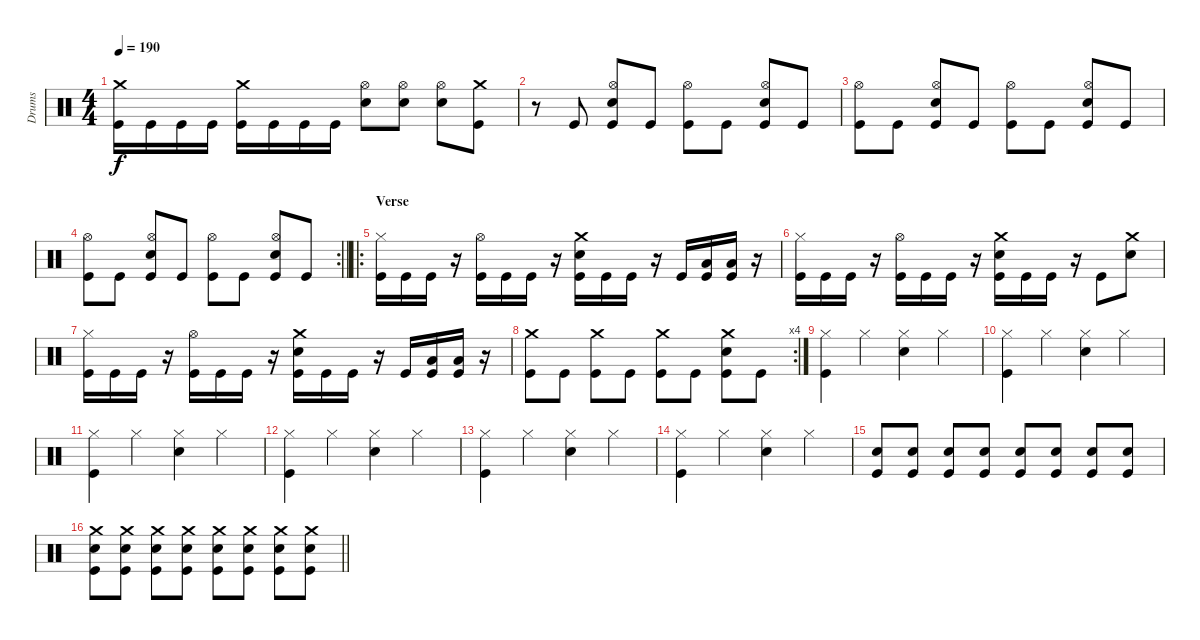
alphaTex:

\track ("Drums" "Drums") {instrument percussion}
\staff {score}
\articulation defaults
\ts (4 4)
\tempo 190
\clef neutral
\ks c
("Crash medium (hit)" "Kick (hit)").16{dy f} "Kick (hit)".16 "Kick (hit)".16 "Kick (hit)".16 ("Crash medium (hit)" "Kick (hit)").16 "Kick (hit)".16 "Kick (hit)".16 "Kick (hit)".16 ("Hi-Hat (open)" "Snare (hit) 2").8 ("Hi-Hat (open)" "Snare (hit) 2").8 ("Hi-Hat (open)" "Snare (hit) 2").8 ("Crash medium (hit)" "Kick (hit)").8 |
r.8 "Kick (hit)".8 ("Hi-Hat (open)" "Snare (hit) 2" "Kick (hit)").8 "Kick (hit)".8 ("Hi-Hat (open)" "Kick (hit)").8 "Kick (hit)".8 ("Hi-Hat (open)" "Snare (hit) 2" "Kick (hit)").8 "Kick (hit)".8 |
("Hi-Hat (open)" "Kick (hit)").8 "Kick (hit)".8 ("Hi-Hat (open)" "Snare (hit) 2" "Kick (hit)").8 "Kick (hit)".8 ("Hi-Hat (open)" "Kick (hit)").8 "Kick (hit)".8 ("Hi-Hat (open)" "Snare (hit) 2" "Kick (hit)").8 "Kick (hit)".8 |
\rc 2
\barLineRight lightlight
("Hi-Hat (open)" "Kick (hit)").8 "Kick (hit)".8 ("Hi-Hat (open)" "Snare (hit) 2" "Kick (hit)").8 "Kick (hit)".8 ("Hi-Hat (open)" "Kick (hit)").8 "Kick (hit)".8 ("Hi-Hat (open)" "Snare (hit) 2" "Kick (hit)").8 "Kick (hit)".8 |
\ro
\section ("" "Verse")
("Hi-Hat (closed)" "Kick (hit)").16 "Kick (hit)".16 "Kick (hit)".16 r.16 ("Hi-Hat (open)" "Kick (hit)").16 "Kick (hit)".16 "Kick (hit)".16 r.16 ("Crash medium (hit)" "Snare (hit) 2" "Kick (hit)").16 "Kick (hit)".16 "Kick (hit)".16 r.16 "Kick (hit)".16 ("Low Floor Tom (hit)" "Kick (hit)").16 ("Low Floor Tom (hit)" "Kick (hit)").16 r.16 |
("Hi-Hat (closed)" "Kick (hit)").16 "Kick (hit)".16 "Kick (hit)".16 r.16 ("Hi-Hat (open)" "Kick (hit)").16 "Kick (hit)".16 "Kick (hit)".16 r.16 ("Crash medium (hit)" "Snare (hit) 2" "Kick (hit)").16 "Kick (hit)".16 "Kick (hit)".16 r.16 "Kick (hit)".8 ("Crash medium (hit)" "Snare (hit) 2").8 |
("Hi-Hat (closed)" "Kick (hit)").16 "Kick (hit)".16 "Kick (hit)".16 r.16 ("Hi-Hat (open)" "Kick (hit)").16 "Kick (hit)".16 "Kick (hit)".16 r.16 ("Crash medium (hit)" "Snare (hit) 2" "Kick (hit)").16 "Kick (hit)".16 "Kick (hit)".16 r.16 "Kick (hit)".16 ("Low Floor Tom (hit)" "Kick (hit)").16 ("Low Floor Tom (hit)" "Kick (hit)").16 r.16 |
\rc 4
("Crash medium (hit)" "Kick (hit)").8 "Kick (hit)".8 ("Crash medium (hit)" "Kick (hit)").8 "Kick (hit)".8 ("Crash medium (hit)" "Kick (hit)").8 "Kick (hit)".8 ("Crash medium (hit)" "Snare (hit) 2" "Kick (hit)").8 "Kick (hit)".8 |
("Hi-Hat (closed)" "Kick (hit)").4 "Hi-Hat (closed)".4 ("Hi-Hat (closed)" "Snare (hit) 2").4 "Hi-Hat (closed)".4 |
("Hi-Hat (closed)" "Kick (hit)").4 "Hi-Hat (closed)".4 ("Hi-Hat (closed)" "Snare (hit) 2").4 "Hi-Hat (closed)".4 |
("Hi-Hat (closed)" "Kick (hit)").4 "Hi-Hat (closed)".4 ("Hi-Hat (closed)" "Snare (hit) 2").4 "Hi-Hat (closed)".4 |
("Hi-Hat (closed)" "Kick (hit)").4 "Hi-Hat (closed)".4 ("Hi-Hat (closed)" "Snare (hit) 2").4 "Hi-Hat (closed)".4 |
("Hi-Hat (closed)" "Kick (hit)").4 "Hi-Hat (closed)".4 ("Hi-Hat (closed)" "Snare (hit) 2").4 "Hi-Hat (closed)".4 |
("Hi-Hat (closed)" "Kick (hit)").4 "Hi-Hat (closed)".4 ("Hi-Hat (closed)" "Snare (hit) 2").4 "Hi-Hat (closed)".4 |
("Snare (hit) 2" "Kick (hit)").8 ("Snare (hit) 2" "Kick (hit)").8 ("Snare (hit) 2" "Kick (hit)").8 ("Snare (hit) 2" "Kick (hit)").8 ("Snare (hit) 2" "Kick (hit)").8 ("Snare (hit) 2" "Kick (hit)").8 ("Snare (hit) 2" "Kick (hit)").8 ("Snare (hit) 2" "Kick (hit)").8 |
\barLineRight lightlight
("Crash medium (hit)" "Snare (hit) 2" "Kick (hit)").8 ("Crash medium (hit)" "Snare (hit) 2" "Kick (hit)").8 ("Crash medium (hit)" "Snare (hit) 2" "Kick (hit)").8 ("Crash medium (hit)" "Snare (hit) 2" "Kick (hit)").8 ("Crash medium (hit)" "Snare (hit) 2" "Kick (hit)").8 ("Crash medium (hit)" "Snare (hit) 2" "Kick (hit)").8 ("Crash medium (hit)" "Snare (hit) 2" "Kick (hit)").8 ("Crash medium (hit)" "Snare (hit) 2" "Kick (hit)").8
